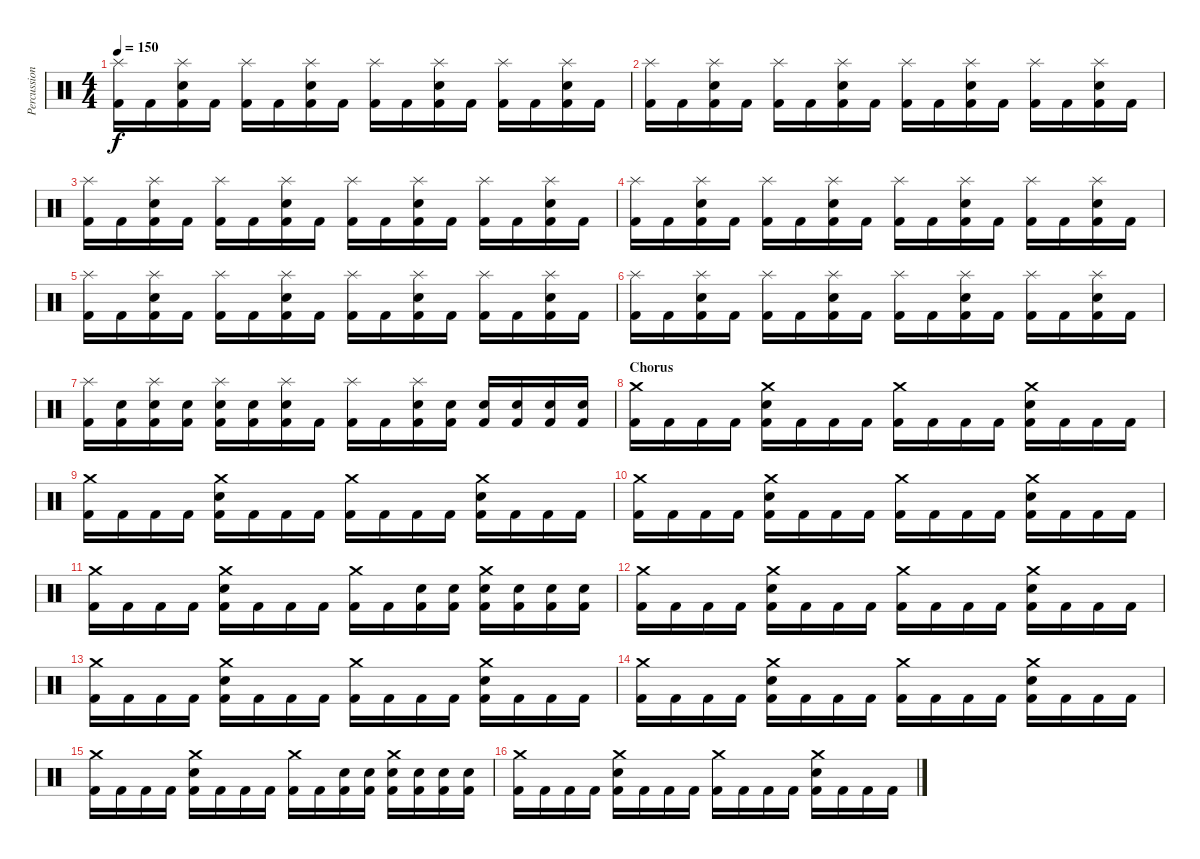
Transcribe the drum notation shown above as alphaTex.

\track ("Percussion" "Percussion") {instrument percussion}
\staff {score}
\articulation defaults
\ts (4 4)
\tempo 150
\clef neutral
\ks c
("Splash (hit)" "Kick (hit) 2").16{dy f} "Kick (hit) 2".16 ("Splash (hit)" "Electric Snare (hit)" "Kick (hit) 2").16 "Kick (hit) 2".16 ("Splash (hit)" "Kick (hit) 2").16 "Kick (hit) 2".16 ("Splash (hit)" "Electric Snare (hit)" "Kick (hit) 2").16 "Kick (hit) 2".16 ("Splash (hit)" "Kick (hit) 2").16 "Kick (hit) 2".16 ("Splash (hit)" "Electric Snare (hit)" "Kick (hit) 2").16 "Kick (hit) 2".16 ("Splash (hit)" "Kick (hit) 2").16 "Kick (hit) 2".16 ("Splash (hit)" "Electric Snare (hit)" "Kick (hit) 2").16 "Kick (hit) 2".16 |
("Splash (hit)" "Kick (hit) 2").16 "Kick (hit) 2".16 ("Splash (hit)" "Electric Snare (hit)" "Kick (hit) 2").16 "Kick (hit) 2".16 ("Splash (hit)" "Kick (hit) 2").16 "Kick (hit) 2".16 ("Splash (hit)" "Electric Snare (hit)" "Kick (hit) 2").16 "Kick (hit) 2".16 ("Splash (hit)" "Kick (hit) 2").16 "Kick (hit) 2".16 ("Splash (hit)" "Electric Snare (hit)" "Kick (hit) 2").16 "Kick (hit) 2".16 ("Splash (hit)" "Kick (hit) 2").16 "Kick (hit) 2".16 ("Splash (hit)" "Electric Snare (hit)" "Kick (hit) 2").16 "Kick (hit) 2".16 |
("Splash (hit)" "Kick (hit) 2").16 "Kick (hit) 2".16 ("Splash (hit)" "Electric Snare (hit)" "Kick (hit) 2").16 "Kick (hit) 2".16 ("Splash (hit)" "Kick (hit) 2").16 "Kick (hit) 2".16 ("Splash (hit)" "Electric Snare (hit)" "Kick (hit) 2").16 "Kick (hit) 2".16 ("Splash (hit)" "Kick (hit) 2").16 "Kick (hit) 2".16 ("Splash (hit)" "Electric Snare (hit)" "Kick (hit) 2").16 "Kick (hit) 2".16 ("Splash (hit)" "Kick (hit) 2").16 "Kick (hit) 2".16 ("Splash (hit)" "Electric Snare (hit)" "Kick (hit) 2").16 "Kick (hit) 2".16 |
("Splash (hit)" "Kick (hit) 2").16 "Kick (hit) 2".16 ("Splash (hit)" "Electric Snare (hit)" "Kick (hit) 2").16 "Kick (hit) 2".16 ("Splash (hit)" "Kick (hit) 2").16 "Kick (hit) 2".16 ("Splash (hit)" "Electric Snare (hit)" "Kick (hit) 2").16 "Kick (hit) 2".16 ("Splash (hit)" "Kick (hit) 2").16 "Kick (hit) 2".16 ("Splash (hit)" "Electric Snare (hit)" "Kick (hit) 2").16 "Kick (hit) 2".16 ("Splash (hit)" "Kick (hit) 2").16 "Kick (hit) 2".16 ("Splash (hit)" "Electric Snare (hit)" "Kick (hit) 2").16 "Kick (hit) 2".16 |
("Splash (hit)" "Kick (hit) 2").16 "Kick (hit) 2".16 ("Splash (hit)" "Electric Snare (hit)" "Kick (hit) 2").16 "Kick (hit) 2".16 ("Splash (hit)" "Kick (hit) 2").16 "Kick (hit) 2".16 ("Splash (hit)" "Electric Snare (hit)" "Kick (hit) 2").16 "Kick (hit) 2".16 ("Splash (hit)" "Kick (hit) 2").16 "Kick (hit) 2".16 ("Splash (hit)" "Electric Snare (hit)" "Kick (hit) 2").16 "Kick (hit) 2".16 ("Splash (hit)" "Kick (hit) 2").16 "Kick (hit) 2".16 ("Splash (hit)" "Electric Snare (hit)" "Kick (hit) 2").16 "Kick (hit) 2".16 |
("Splash (hit)" "Kick (hit) 2").16 "Kick (hit) 2".16 ("Splash (hit)" "Electric Snare (hit)" "Kick (hit) 2").16 "Kick (hit) 2".16 ("Splash (hit)" "Kick (hit) 2").16 "Kick (hit) 2".16 ("Splash (hit)" "Electric Snare (hit)" "Kick (hit) 2").16 "Kick (hit) 2".16 ("Splash (hit)" "Kick (hit) 2").16 "Kick (hit) 2".16 ("Splash (hit)" "Electric Snare (hit)" "Kick (hit) 2").16 "Kick (hit) 2".16 ("Splash (hit)" "Kick (hit) 2").16 "Kick (hit) 2".16 ("Splash (hit)" "Electric Snare (hit)" "Kick (hit) 2").16 "Kick (hit) 2".16 |
("Splash (hit)" "Kick (hit) 2").16 ("Electric Snare (hit)" "Kick (hit) 2").16 ("Splash (hit)" "Electric Snare (hit)" "Kick (hit) 2").16 ("Electric Snare (hit)" "Kick (hit) 2").16 ("Splash (hit)" "Electric Snare (hit)" "Kick (hit) 2").16 ("Electric Snare (hit)" "Kick (hit) 2").16 ("Splash (hit)" "Electric Snare (hit)" "Kick (hit) 2").16 "Kick (hit) 2".16 ("Splash (hit)" "Kick (hit) 2").16 "Kick (hit) 2".16 ("Splash (hit)" "Electric Snare (hit)" "Kick (hit) 2").16 ("Electric Snare (hit)" "Kick (hit) 2").16 ("Electric Snare (hit)" "Kick (hit) 2").16 ("Electric Snare (hit)" "Kick (hit) 2").16 ("Electric Snare (hit)" "Kick (hit) 2").16 ("Electric Snare (hit)" "Kick (hit) 2").16 |
\section ("" "Chorus")
("Crash medium (hit)" "Kick (hit) 2").16 "Kick (hit) 2".16 "Kick (hit) 2".16 "Kick (hit) 2".16 ("Crash medium (hit)" "Electric Snare (hit)" "Kick (hit) 2").16 "Kick (hit) 2".16 "Kick (hit) 2".16 "Kick (hit) 2".16 ("Crash medium (hit)" "Kick (hit) 2").16 "Kick (hit) 2".16 "Kick (hit) 2".16 "Kick (hit) 2".16 ("Crash medium (hit)" "Electric Snare (hit)" "Kick (hit) 2").16 "Kick (hit) 2".16 "Kick (hit) 2".16 "Kick (hit) 2".16 |
("Crash medium (hit)" "Kick (hit) 2").16 "Kick (hit) 2".16 "Kick (hit) 2".16 "Kick (hit) 2".16 ("Crash medium (hit)" "Electric Snare (hit)" "Kick (hit) 2").16 "Kick (hit) 2".16 "Kick (hit) 2".16 "Kick (hit) 2".16 ("Crash medium (hit)" "Kick (hit) 2").16 "Kick (hit) 2".16 "Kick (hit) 2".16 "Kick (hit) 2".16 ("Crash medium (hit)" "Electric Snare (hit)" "Kick (hit) 2").16 "Kick (hit) 2".16 "Kick (hit) 2".16 "Kick (hit) 2".16 |
("Crash medium (hit)" "Kick (hit) 2").16 "Kick (hit) 2".16 "Kick (hit) 2".16 "Kick (hit) 2".16 ("Crash medium (hit)" "Electric Snare (hit)" "Kick (hit) 2").16 "Kick (hit) 2".16 "Kick (hit) 2".16 "Kick (hit) 2".16 ("Crash medium (hit)" "Kick (hit) 2").16 "Kick (hit) 2".16 "Kick (hit) 2".16 "Kick (hit) 2".16 ("Crash medium (hit)" "Electric Snare (hit)" "Kick (hit) 2").16 "Kick (hit) 2".16 "Kick (hit) 2".16 "Kick (hit) 2".16 |
("Crash medium (hit)" "Kick (hit) 2").16 "Kick (hit) 2".16 "Kick (hit) 2".16 "Kick (hit) 2".16 ("Crash medium (hit)" "Electric Snare (hit)" "Kick (hit) 2").16 "Kick (hit) 2".16 "Kick (hit) 2".16 "Kick (hit) 2".16 ("Crash medium (hit)" "Kick (hit) 2").16 "Kick (hit) 2".16 ("Electric Snare (hit)" "Kick (hit) 2").16 ("Electric Snare (hit)" "Kick (hit) 2").16 ("Crash medium (hit)" "Electric Snare (hit)" "Kick (hit) 2").16 ("Electric Snare (hit)" "Kick (hit) 2").16 ("Electric Snare (hit)" "Kick (hit) 2").16 ("Electric Snare (hit)" "Kick (hit) 2").16 |
("Crash medium (hit)" "Kick (hit) 2").16 "Kick (hit) 2".16 "Kick (hit) 2".16 "Kick (hit) 2".16 ("Crash medium (hit)" "Electric Snare (hit)" "Kick (hit) 2").16 "Kick (hit) 2".16 "Kick (hit) 2".16 "Kick (hit) 2".16 ("Crash medium (hit)" "Kick (hit) 2").16 "Kick (hit) 2".16 "Kick (hit) 2".16 "Kick (hit) 2".16 ("Crash medium (hit)" "Electric Snare (hit)" "Kick (hit) 2").16 "Kick (hit) 2".16 "Kick (hit) 2".16 "Kick (hit) 2".16 |
("Crash medium (hit)" "Kick (hit) 2").16 "Kick (hit) 2".16 "Kick (hit) 2".16 "Kick (hit) 2".16 ("Crash medium (hit)" "Electric Snare (hit)" "Kick (hit) 2").16 "Kick (hit) 2".16 "Kick (hit) 2".16 "Kick (hit) 2".16 ("Crash medium (hit)" "Kick (hit) 2").16 "Kick (hit) 2".16 "Kick (hit) 2".16 "Kick (hit) 2".16 ("Crash medium (hit)" "Electric Snare (hit)" "Kick (hit) 2").16 "Kick (hit) 2".16 "Kick (hit) 2".16 "Kick (hit) 2".16 |
("Crash medium (hit)" "Kick (hit) 2").16 "Kick (hit) 2".16 "Kick (hit) 2".16 "Kick (hit) 2".16 ("Crash medium (hit)" "Electric Snare (hit)" "Kick (hit) 2").16 "Kick (hit) 2".16 "Kick (hit) 2".16 "Kick (hit) 2".16 ("Crash medium (hit)" "Kick (hit) 2").16 "Kick (hit) 2".16 "Kick (hit) 2".16 "Kick (hit) 2".16 ("Crash medium (hit)" "Electric Snare (hit)" "Kick (hit) 2").16 "Kick (hit) 2".16 "Kick (hit) 2".16 "Kick (hit) 2".16 |
("Crash medium (hit)" "Kick (hit) 2").16 "Kick (hit) 2".16 "Kick (hit) 2".16 "Kick (hit) 2".16 ("Crash medium (hit)" "Electric Snare (hit)" "Kick (hit) 2").16 "Kick (hit) 2".16 "Kick (hit) 2".16 "Kick (hit) 2".16 ("Crash medium (hit)" "Kick (hit) 2").16 "Kick (hit) 2".16 ("Electric Snare (hit)" "Kick (hit) 2").16 ("Electric Snare (hit)" "Kick (hit) 2").16 ("Crash medium (hit)" "Electric Snare (hit)" "Kick (hit) 2").16 ("Electric Snare (hit)" "Kick (hit) 2").16 ("Electric Snare (hit)" "Kick (hit) 2").16 ("Electric Snare (hit)" "Kick (hit) 2").16 |
("Crash medium (hit)" "Kick (hit) 2").16 "Kick (hit) 2".16 "Kick (hit) 2".16 "Kick (hit) 2".16 ("Crash medium (hit)" "Electric Snare (hit)" "Kick (hit) 2").16 "Kick (hit) 2".16 "Kick (hit) 2".16 "Kick (hit) 2".16 ("Crash medium (hit)" "Kick (hit) 2").16 "Kick (hit) 2".16 "Kick (hit) 2".16 "Kick (hit) 2".16 ("Crash medium (hit)" "Electric Snare (hit)" "Kick (hit) 2").16 "Kick (hit) 2".16 "Kick (hit) 2".16 "Kick (hit) 2".16
